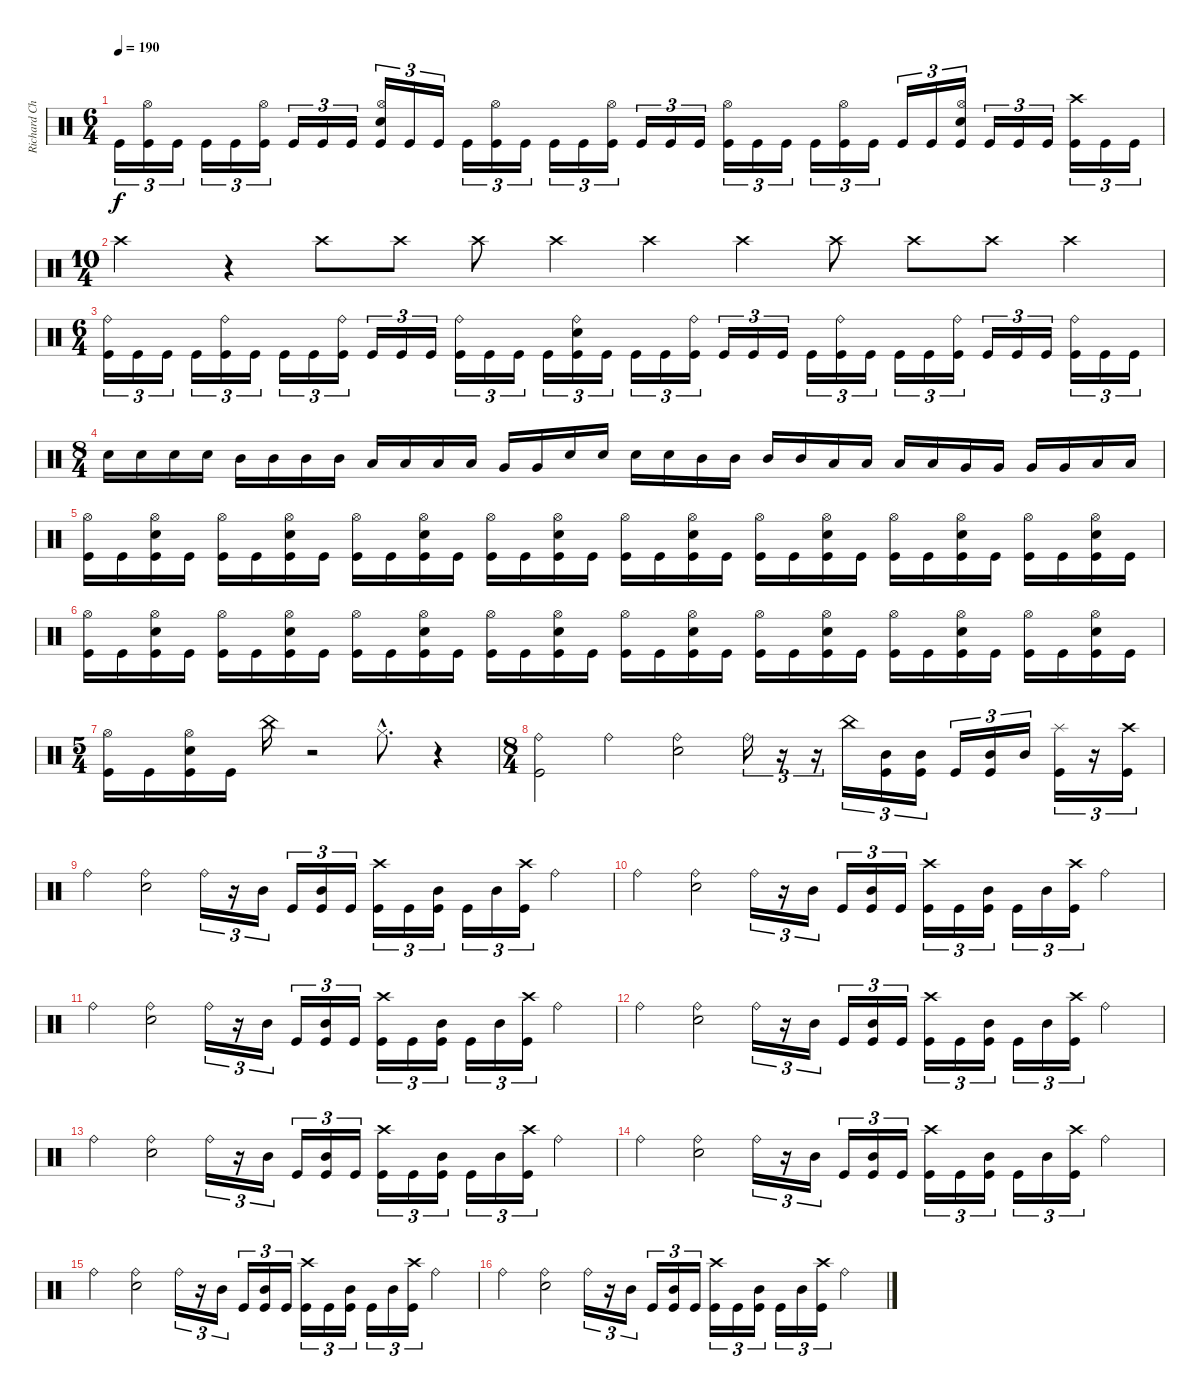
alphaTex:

\track ("Richard Christy" "Richard Ch") {instrument percussion}
\staff {score}
\articulation defaults
\ts (6 4)
\tempo 190
\clef neutral
\ks c "Kick (hit)".16{tu (3 2) dy f}
("Hi-Hat (open)" "Kick (hit)").16{tu (3 2)} "Kick (hit)".16{tu (3 2)} "Kick (hit)".16{tu (3 2)} "Kick (hit)".16{tu (3 2)} ("Hi-Hat (open)" "Kick (hit)").16{tu (3 2)} "Kick (hit)".16{tu (3 2)} "Kick (hit)".16{tu (3 2)} "Kick (hit)".16{tu (3 2)} ("Hi-Hat (open)" "Snare (hit) 2" "Kick (hit)").16{tu (3 2)} "Kick (hit)".16{tu (3 2)} "Kick (hit)".16{tu (3 2)} "Kick (hit)".16{tu (3 2)} ("Hi-Hat (open)" "Kick (hit)").16{tu (3 2)} "Kick (hit)".16{tu (3 2)} "Kick (hit)".16{tu (3 2)} "Kick (hit)".16{tu (3 2)} ("Hi-Hat (open)" "Kick (hit)").16{tu (3 2)} "Kick (hit)".16{tu (3 2)} "Kick (hit)".16{tu (3 2)} "Kick (hit)".16{tu (3 2)} ("Hi-Hat (open)" "Kick (hit)").16{tu (3 2)} "Kick (hit)".16{tu (3 2)} "Kick (hit)".16{tu (3 2)} "Kick (hit)".16{tu (3 2)} ("Hi-Hat (open)" "Kick (hit)").16{tu (3 2)} "Kick (hit)".16{tu (3 2)} "Kick (hit)".16{tu (3 2)} "Kick (hit)".16{tu (3 2)} ("Hi-Hat (open)" "Snare (hit) 2" "Kick (hit)").16{tu (3 2)} "Kick (hit)".16{tu (3 2)} "Kick (hit)".16{tu (3 2)} "Kick (hit)".16{tu (3 2)} ("Crash high (hit)" "Kick (hit)").16{tu (3 2)} "Kick (hit)".16{tu (3 2)} "Kick (hit)".16{tu (3 2)} |
\ts (10 4)
"Crash high (hit)".2 r.4 "Crash high (hit)".8 "Crash high (hit)".8 "Crash high (hit)".8 "Crash high (hit)".4 "Crash high (hit)".4{volume 0} "Crash high (hit)".4{volume 16} "Crash high (hit)".8 "Crash high (hit)".8 "Crash high (hit)".8 "Crash high (hit)".4{volume 0} |
\ts (6 4)
("Ride (bell)" "Kick (hit)").16{tu (3 2) volume 16} "Kick (hit)".16{tu (3 2)} "Kick (hit)".16{tu (3 2)} "Kick (hit)".16{tu (3 2)} ("Ride (bell)" "Kick (hit)").16{tu (3 2)} "Kick (hit)".16{tu (3 2)} "Kick (hit)".16{tu (3 2)} "Kick (hit)".16{tu (3 2)} ("Ride (bell)" "Kick (hit)").16{tu (3 2)} "Kick (hit)".16{tu (3 2)} "Kick (hit)".16{tu (3 2)} "Kick (hit)".16{tu (3 2)} ("Ride (bell)" "Kick (hit)").16{tu (3 2)} "Kick (hit)".16{tu (3 2)} "Kick (hit)".16{tu (3 2)} "Kick (hit)".16{tu (3 2)} ("Ride (bell)" "Snare (hit) 2" "Kick (hit)").16{tu (3 2)} "Kick (hit)".16{tu (3 2)} "Kick (hit)".16{tu (3 2)} "Kick (hit)".16{tu (3 2)} ("Ride (bell)" "Kick (hit)").16{tu (3 2)} "Kick (hit)".16{tu (3 2)} "Kick (hit)".16{tu (3 2)} "Kick (hit)".16{tu (3 2)} "Kick (hit)".16{tu (3 2)} ("Ride (bell)" "Kick (hit)").16{tu (3 2)} "Kick (hit)".16{tu (3 2)} "Kick (hit)".16{tu (3 2)} "Kick (hit)".16{tu (3 2)} ("Ride (bell)" "Kick (hit)").16{tu (3 2)} "Kick (hit)".16{tu (3 2)} "Kick (hit)".16{tu (3 2)} "Kick (hit)".16{tu (3 2)} ("Ride (bell)" "Kick (hit)").16{tu (3 2)} "Kick (hit)".16{tu (3 2)} "Kick (hit)".16{tu (3 2)} |
\ts (8 4)
"Snare (hit) 2".16 "Snare (hit) 2".16 "Snare (hit) 2".16 "Snare (hit) 2".16 "Mid Tom (hit)".16 "Mid Tom (hit)".16 "Mid Tom (hit)".16 "Mid Tom (hit)".16 "Low Tom (hit)".16 "Low Tom (hit)".16 "Low Tom (hit)".16 "Low Tom (hit)".16 "Very Low Tom (hit)".16 "Very Low Tom (hit)".16 "Snare (hit) 2".16 "Snare (hit) 2".16 "Snare (hit) 2".16 "Snare (hit) 2".16 "Mid Tom (hit)".16 "Mid Tom (hit)".16 "Mid Tom (hit)".16 "Mid Tom (hit)".16 "Low Tom (hit)".16 "Low Tom (hit)".16 "Low Tom (hit)".16 "Low Tom (hit)".16 "Very Low Tom (hit)".16 "Very Low Tom (hit)".16 "Very Low Tom (hit)".16 "Very Low Tom (hit)".16 "Low Floor Tom (hit)".16 "Low Floor Tom (hit)".16 |
("Hi-Hat (open)" "Kick (hit)").16 "Kick (hit)".16 ("Hi-Hat (open)" "Snare (hit) 2" "Kick (hit)").16 "Kick (hit)".16 ("Hi-Hat (open)" "Kick (hit)").16 "Kick (hit)".16 ("Hi-Hat (open)" "Snare (hit) 2" "Kick (hit)").16 "Kick (hit)".16 ("Hi-Hat (open)" "Kick (hit)").16 "Kick (hit)".16 ("Hi-Hat (open)" "Snare (hit) 2" "Kick (hit)").16 "Kick (hit)".16 ("Hi-Hat (open)" "Kick (hit)").16 "Kick (hit)".16 ("Hi-Hat (open)" "Snare (hit) 2" "Kick (hit)").16 "Kick (hit)".16 ("Hi-Hat (open)" "Kick (hit)").16 "Kick (hit)".16 ("Hi-Hat (open)" "Snare (hit) 2" "Kick (hit)").16 "Kick (hit)".16 ("Hi-Hat (open)" "Kick (hit)").16 "Kick (hit)".16 ("Hi-Hat (open)" "Snare (hit) 2" "Kick (hit)").16 "Kick (hit)".16 ("Hi-Hat (open)" "Kick (hit)").16 "Kick (hit)".16 ("Hi-Hat (open)" "Snare (hit) 2" "Kick (hit)").16 "Kick (hit)".16 ("Hi-Hat (open)" "Kick (hit)").16 "Kick (hit)".16 ("Hi-Hat (open)" "Snare (hit) 2" "Kick (hit)").16 "Kick (hit)".16 |
("Hi-Hat (open)" "Kick (hit)").16 "Kick (hit)".16 ("Hi-Hat (open)" "Snare (hit) 2" "Kick (hit)").16 "Kick (hit)".16 ("Hi-Hat (open)" "Kick (hit)").16 "Kick (hit)".16 ("Hi-Hat (open)" "Snare (hit) 2" "Kick (hit)").16 "Kick (hit)".16 ("Hi-Hat (open)" "Kick (hit)").16 "Kick (hit)".16 ("Hi-Hat (open)" "Snare (hit) 2" "Kick (hit)").16 "Kick (hit)".16 ("Hi-Hat (open)" "Kick (hit)").16 "Kick (hit)".16 ("Hi-Hat (open)" "Snare (hit) 2" "Kick (hit)").16 "Kick (hit)".16 ("Hi-Hat (open)" "Kick (hit)").16 "Kick (hit)".16 ("Hi-Hat (open)" "Snare (hit) 2" "Kick (hit)").16 "Kick (hit)".16 ("Hi-Hat (open)" "Kick (hit)").16 "Kick (hit)".16 ("Hi-Hat (open)" "Snare (hit) 2" "Kick (hit)").16 "Kick (hit)".16 ("Hi-Hat (open)" "Kick (hit)").16 "Kick (hit)".16 ("Hi-Hat (open)" "Snare (hit) 2" "Kick (hit)").16 "Kick (hit)".16 ("Hi-Hat (open)" "Kick (hit)").16 "Kick (hit)".16 ("Hi-Hat (open)" "Snare (hit) 2" "Kick (hit)").16 "Kick (hit)".16 |
\ts (5 4)
("Hi-Hat (open)" "Kick (hit)").16 "Kick (hit)".16 ("Hi-Hat (open)" "Snare (hit) 2" "Kick (hit)").16 "Kick (hit)".16 "China (hit)".16 r.2 "Hi-Hat (closed)"{hac}.8{d} r.4 |
\ts (8 4)
("Ride (bell)" "Kick (hit)").2 "Ride (bell)".2 ("Ride (bell)" "Snare (hit) 2").2 "Ride (bell)".16{tu (3 2)} r.16{tu (3 2)} r.16{tu (3 2)} "China (hit)".16{tu (3 2)} ("Mid Tom (hit)" "Kick (hit)").16{tu (3 2)} ("Mid Tom (hit)" "Kick (hit)").16{tu (3 2)} "Kick (hit)".16{tu (3 2)} ("Mid Tom (hit)" "Kick (hit)").16{tu (3 2)} "Mid Tom (hit)".16{tu (3 2)} ("Splash (hit)" "Kick (hit)").16{tu (3 2)} r.16{tu (3 2)} ("Crash high (hit)" "Kick (hit)").16{tu (3 2)} |
"Ride (bell)".2 ("Ride (bell)" "Snare (hit) 2").2 "Ride (bell)".16{tu (3 2)} r.16{tu (3 2)} "Mid Tom (hit)".16{tu (3 2)} "Kick (hit)".16{tu (3 2)} ("Mid Tom (hit)" "Kick (hit)").16{tu (3 2)} "Kick (hit)".16{tu (3 2)} ("Crash high (hit)" "Kick (hit)").16{tu (3 2)} "Kick (hit)".16{tu (3 2)} ("Mid Tom (hit)" "Kick (hit)").16{tu (3 2)} "Kick (hit)".16{tu (3 2)} "Mid Tom (hit)".16{tu (3 2)} ("Crash high (hit)" "Kick (hit)").16{tu (3 2)} "Ride (bell)".2 |
"Ride (bell)".2 ("Ride (bell)" "Snare (hit) 2").2 "Ride (bell)".16{tu (3 2)} r.16{tu (3 2)} "Mid Tom (hit)".16{tu (3 2)} "Kick (hit)".16{tu (3 2)} ("Mid Tom (hit)" "Kick (hit)").16{tu (3 2)} "Kick (hit)".16{tu (3 2)} ("Crash high (hit)" "Kick (hit)").16{tu (3 2)} "Kick (hit)".16{tu (3 2)} ("Mid Tom (hit)" "Kick (hit)").16{tu (3 2)} "Kick (hit)".16{tu (3 2)} "Mid Tom (hit)".16{tu (3 2)} ("Crash high (hit)" "Kick (hit)").16{tu (3 2)} "Ride (bell)".2 |
"Ride (bell)".2 ("Ride (bell)" "Snare (hit) 2").2 "Ride (bell)".16{tu (3 2)} r.16{tu (3 2)} "Mid Tom (hit)".16{tu (3 2)} "Kick (hit)".16{tu (3 2)} ("Mid Tom (hit)" "Kick (hit)").16{tu (3 2)} "Kick (hit)".16{tu (3 2)} ("Crash high (hit)" "Kick (hit)").16{tu (3 2)} "Kick (hit)".16{tu (3 2)} ("Mid Tom (hit)" "Kick (hit)").16{tu (3 2)} "Kick (hit)".16{tu (3 2)} "Mid Tom (hit)".16{tu (3 2)} ("Crash high (hit)" "Kick (hit)").16{tu (3 2)} "Ride (bell)".2 |
"Ride (bell)".2 ("Ride (bell)" "Snare (hit) 2").2 "Ride (bell)".16{tu (3 2)} r.16{tu (3 2)} "Mid Tom (hit)".16{tu (3 2)} "Kick (hit)".16{tu (3 2)} ("Mid Tom (hit)" "Kick (hit)").16{tu (3 2)} "Kick (hit)".16{tu (3 2)} ("Crash high (hit)" "Kick (hit)").16{tu (3 2)} "Kick (hit)".16{tu (3 2)} ("Mid Tom (hit)" "Kick (hit)").16{tu (3 2)} "Kick (hit)".16{tu (3 2)} "Mid Tom (hit)".16{tu (3 2)} ("Crash high (hit)" "Kick (hit)").16{tu (3 2)} "Ride (bell)".2 |
"Ride (bell)".2 ("Ride (bell)" "Snare (hit) 2").2 "Ride (bell)".16{tu (3 2)} r.16{tu (3 2)} "Mid Tom (hit)".16{tu (3 2)} "Kick (hit)".16{tu (3 2)} ("Mid Tom (hit)" "Kick (hit)").16{tu (3 2)} "Kick (hit)".16{tu (3 2)} ("Crash high (hit)" "Kick (hit)").16{tu (3 2)} "Kick (hit)".16{tu (3 2)} ("Mid Tom (hit)" "Kick (hit)").16{tu (3 2)} "Kick (hit)".16{tu (3 2)} "Mid Tom (hit)".16{tu (3 2)} ("Crash high (hit)" "Kick (hit)").16{tu (3 2)} "Ride (bell)".2 |
"Ride (bell)".2 ("Ride (bell)" "Snare (hit) 2").2 "Ride (bell)".16{tu (3 2)} r.16{tu (3 2)} "Mid Tom (hit)".16{tu (3 2)} "Kick (hit)".16{tu (3 2)} ("Mid Tom (hit)" "Kick (hit)").16{tu (3 2)} "Kick (hit)".16{tu (3 2)} ("Crash high (hit)" "Kick (hit)").16{tu (3 2)} "Kick (hit)".16{tu (3 2)} ("Mid Tom (hit)" "Kick (hit)").16{tu (3 2)} "Kick (hit)".16{tu (3 2)} "Mid Tom (hit)".16{tu (3 2)} ("Crash high (hit)" "Kick (hit)").16{tu (3 2)} "Ride (bell)".2 |
"Ride (bell)".2 ("Ride (bell)" "Snare (hit) 2").2 "Ride (bell)".16{tu (3 2)} r.16{tu (3 2)} "Mid Tom (hit)".16{tu (3 2)} "Kick (hit)".16{tu (3 2)} ("Mid Tom (hit)" "Kick (hit)").16{tu (3 2)} "Kick (hit)".16{tu (3 2)} ("Crash high (hit)" "Kick (hit)").16{tu (3 2)} "Kick (hit)".16{tu (3 2)} ("Mid Tom (hit)" "Kick (hit)").16{tu (3 2)} "Kick (hit)".16{tu (3 2)} "Mid Tom (hit)".16{tu (3 2)} ("Crash high (hit)" "Kick (hit)").16{tu (3 2)} "Ride (bell)".2 |
"Ride (bell)".2 ("Ride (bell)" "Snare (hit) 2").2 "Ride (bell)".16{tu (3 2)} r.16{tu (3 2)} "Mid Tom (hit)".16{tu (3 2)} "Kick (hit)".16{tu (3 2)} ("Mid Tom (hit)" "Kick (hit)").16{tu (3 2)} "Kick (hit)".16{tu (3 2)} ("Crash high (hit)" "Kick (hit)").16{tu (3 2)} "Kick (hit)".16{tu (3 2)} ("Mid Tom (hit)" "Kick (hit)").16{tu (3 2)} "Kick (hit)".16{tu (3 2)} "Mid Tom (hit)".16{tu (3 2)} ("Crash high (hit)" "Kick (hit)").16{tu (3 2)} "Ride (bell)".2
